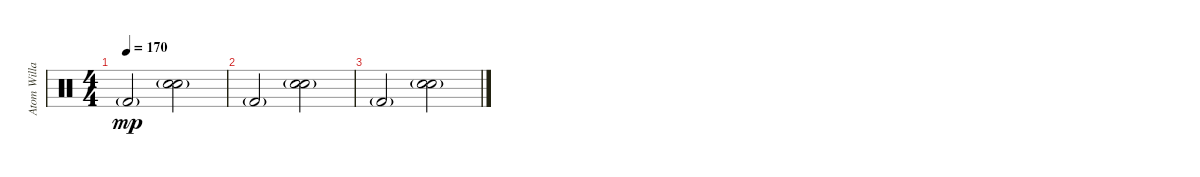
\track ("Atom Willard" "Atom Willa") {instrument percussion}
\staff {score}
\articulation defaults
\ts (4 4)
\tempo 170
\clef neutral
\ks c "Kick (hit) 2"{g}.2{dy mp volume 11}
("Electric Snare (hit)"{g} "Snare (hit) 2"{g}).2 |
"Kick (hit) 2"{g}.2{volume 8} ("Electric Snare (hit)"{g} "Snare (hit) 2"{g}).2 |
"Kick (hit) 2"{g}.2{volume 8} ("Electric Snare (hit)"{g} "Snare (hit) 2"{g}).2
